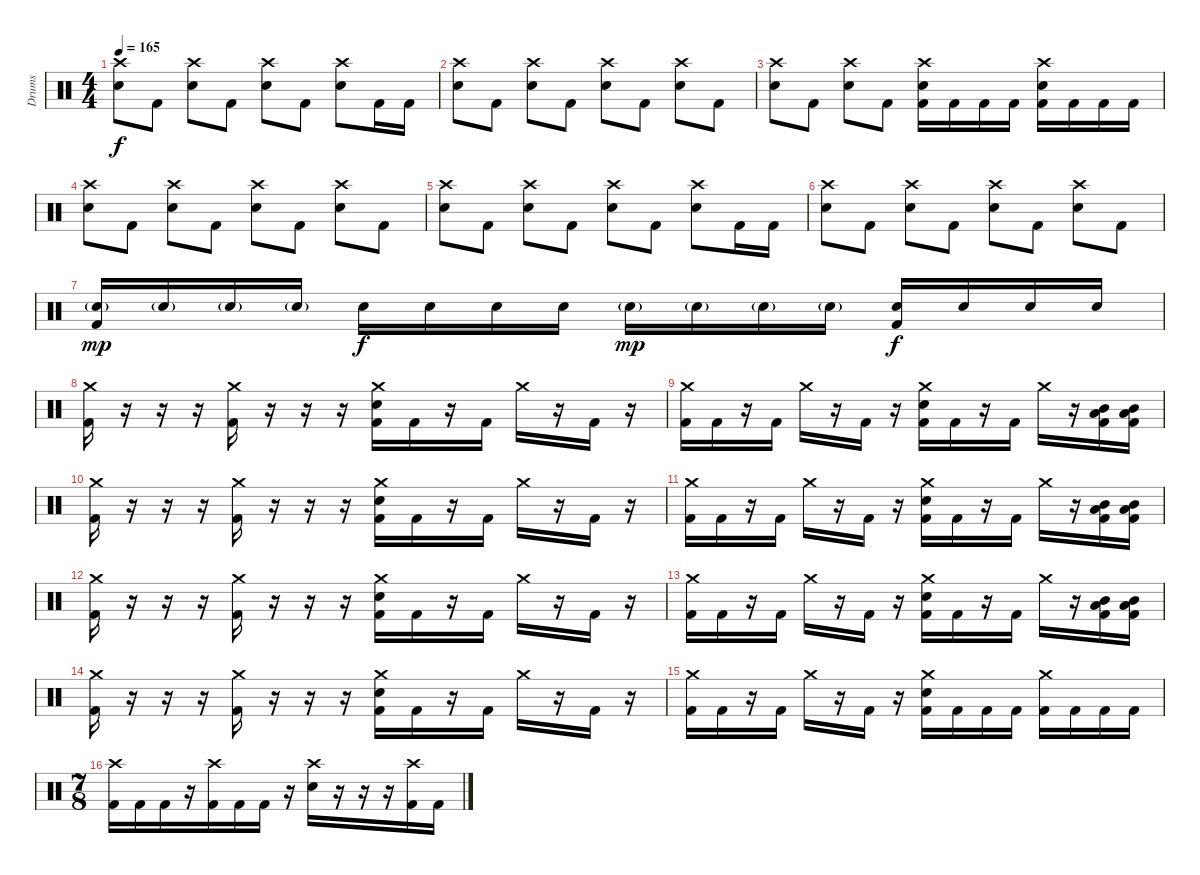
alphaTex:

\track ("Drums" "Drums") {instrument percussion}
\staff {score}
\articulation defaults
\ts (4 4)
\tempo 165
\clef neutral
\ks c
("Crash high (hit)" "Electric Snare (hit)").8{dy f} "Kick (hit) 2".8 ("Crash high (hit)" "Electric Snare (hit)").8 "Kick (hit) 2".8 ("Crash high (hit)" "Electric Snare (hit)").8 "Kick (hit) 2".8 ("Crash high (hit)" "Electric Snare (hit)").8 "Kick (hit) 2".16 "Kick (hit) 2".16 |
("Crash high (hit)" "Electric Snare (hit)").8 "Kick (hit) 2".8 ("Crash high (hit)" "Electric Snare (hit)").8 "Kick (hit) 2".8 ("Crash high (hit)" "Electric Snare (hit)").8 "Kick (hit) 2".8 ("Crash high (hit)" "Electric Snare (hit)").8 "Kick (hit) 2".8 |
("Crash high (hit)" "Electric Snare (hit)").8 "Kick (hit) 2".8 ("Crash high (hit)" "Electric Snare (hit)").8 "Kick (hit) 2".8 ("Crash high (hit)" "Electric Snare (hit)" "Kick (hit) 2").16 "Kick (hit) 2".16 "Kick (hit) 2".16 "Kick (hit) 2".16 ("Crash high (hit)" "Electric Snare (hit)" "Kick (hit) 2").16 "Kick (hit) 2".16 "Kick (hit) 2".16 "Kick (hit) 2".16 |
("Crash high (hit)" "Electric Snare (hit)").8 "Kick (hit) 2".8 ("Crash high (hit)" "Electric Snare (hit)").8 "Kick (hit) 2".8 ("Crash high (hit)" "Electric Snare (hit)").8 "Kick (hit) 2".8 ("Crash high (hit)" "Electric Snare (hit)").8 "Kick (hit) 2".8 |
("Crash high (hit)" "Electric Snare (hit)").8 "Kick (hit) 2".8 ("Crash high (hit)" "Electric Snare (hit)").8 "Kick (hit) 2".8 ("Crash high (hit)" "Electric Snare (hit)").8 "Kick (hit) 2".8 ("Crash high (hit)" "Electric Snare (hit)").8 "Kick (hit) 2".16 "Kick (hit) 2".16 |
("Crash high (hit)" "Electric Snare (hit)").8 "Kick (hit) 2".8 ("Crash high (hit)" "Electric Snare (hit)").8 "Kick (hit) 2".8 ("Crash high (hit)" "Electric Snare (hit)").8 "Kick (hit) 2".8 ("Crash high (hit)" "Electric Snare (hit)").8 "Kick (hit) 2".8 |
("Electric Snare (hit)"{g} "Kick (hit) 2").16{dy mp} "Electric Snare (hit)"{g}.16 "Electric Snare (hit)"{g}.16 "Electric Snare (hit)"{g}.16 "Electric Snare (hit)".16{dy f} "Electric Snare (hit)".16 "Electric Snare (hit)".16 "Electric Snare (hit)".16 "Electric Snare (hit)"{g}.16{dy mp} "Electric Snare (hit)"{g}.16 "Electric Snare (hit)"{g}.16 "Electric Snare (hit)"{g}.16 ("Electric Snare (hit)" "Kick (hit) 2").16{dy f} "Electric Snare (hit)".16 "Electric Snare (hit)".16 "Electric Snare (hit)".16 |
("Crash medium (hit)" "Kick (hit) 2").16 r.16 r.16 r.16 ("Crash medium (hit)" "Kick (hit) 2").16 r.16 r.16 r.16 ("Crash medium (hit)" "Electric Snare (hit)" "Kick (hit) 2").16 "Kick (hit) 2".16 r.16 "Kick (hit) 2".16 "Crash medium (hit)".16 r.16 "Kick (hit) 2".16 r.16 |
("Crash medium (hit)" "Kick (hit) 2").16 "Kick (hit) 2".16 r.16 "Kick (hit) 2".16 "Crash medium (hit)".16 r.16 "Kick (hit) 2".16 r.16 ("Crash medium (hit)" "Electric Snare (hit)" "Kick (hit) 2").16 "Kick (hit) 2".16 r.16 "Kick (hit) 2".16 "Crash medium (hit)".16 r.16 ("Low Tom (hit)" "Mid Tom (hit)" "Kick (hit) 2").16 ("Low Tom (hit)" "Mid Tom (hit)" "Kick (hit) 2").16 |
("Crash medium (hit)" "Kick (hit) 2").16 r.16 r.16 r.16 ("Crash medium (hit)" "Kick (hit) 2").16 r.16 r.16 r.16 ("Crash medium (hit)" "Electric Snare (hit)" "Kick (hit) 2").16 "Kick (hit) 2".16 r.16 "Kick (hit) 2".16 "Crash medium (hit)".16 r.16 "Kick (hit) 2".16 r.16 |
("Crash medium (hit)" "Kick (hit) 2").16 "Kick (hit) 2".16 r.16 "Kick (hit) 2".16 "Crash medium (hit)".16 r.16 "Kick (hit) 2".16 r.16 ("Crash medium (hit)" "Electric Snare (hit)" "Kick (hit) 2").16 "Kick (hit) 2".16 r.16 "Kick (hit) 2".16 "Crash medium (hit)".16 r.16 ("Low Tom (hit)" "Mid Tom (hit)" "Kick (hit) 2").16 ("Low Tom (hit)" "Mid Tom (hit)" "Kick (hit) 2").16 |
("Crash medium (hit)" "Kick (hit) 2").16 r.16 r.16 r.16 ("Crash medium (hit)" "Kick (hit) 2").16 r.16 r.16 r.16 ("Crash medium (hit)" "Electric Snare (hit)" "Kick (hit) 2").16 "Kick (hit) 2".16 r.16 "Kick (hit) 2".16 "Crash medium (hit)".16 r.16 "Kick (hit) 2".16 r.16 |
("Crash medium (hit)" "Kick (hit) 2").16 "Kick (hit) 2".16 r.16 "Kick (hit) 2".16 "Crash medium (hit)".16 r.16 "Kick (hit) 2".16 r.16 ("Crash medium (hit)" "Electric Snare (hit)" "Kick (hit) 2").16 "Kick (hit) 2".16 r.16 "Kick (hit) 2".16 "Crash medium (hit)".16 r.16 ("Low Tom (hit)" "Mid Tom (hit)" "Kick (hit) 2").16 ("Low Tom (hit)" "Mid Tom (hit)" "Kick (hit) 2").16 |
("Crash medium (hit)" "Kick (hit) 2").16 r.16 r.16 r.16 ("Crash medium (hit)" "Kick (hit) 2").16 r.16 r.16 r.16 ("Crash medium (hit)" "Electric Snare (hit)" "Kick (hit) 2").16 "Kick (hit) 2".16 r.16 "Kick (hit) 2".16 "Crash medium (hit)".16 r.16 "Kick (hit) 2".16 r.16 |
("Crash medium (hit)" "Kick (hit) 2").16 "Kick (hit) 2".16 r.16 "Kick (hit) 2".16 "Crash medium (hit)".16 r.16 "Kick (hit) 2".16 r.16 ("Crash medium (hit)" "Electric Snare (hit)" "Kick (hit) 2").16 "Kick (hit) 2".16 "Kick (hit) 2".16 "Kick (hit) 2".16 ("Crash medium (hit)" "Kick (hit) 2").16 "Kick (hit) 2".16 "Kick (hit) 2".16 "Kick (hit) 2".16 |
\ts (7 8)
("Crash high (hit)" "Kick (hit) 2").16 "Kick (hit) 2".16 "Kick (hit) 2".16 r.16 ("Crash high (hit)" "Kick (hit) 2").16 "Kick (hit) 2".16 "Kick (hit) 2".16 r.16 ("Crash high (hit)" "Electric Snare (hit)").16 r.16 r.16 r.16 ("Crash high (hit)" "Kick (hit) 2").16 "Kick (hit) 2".16
